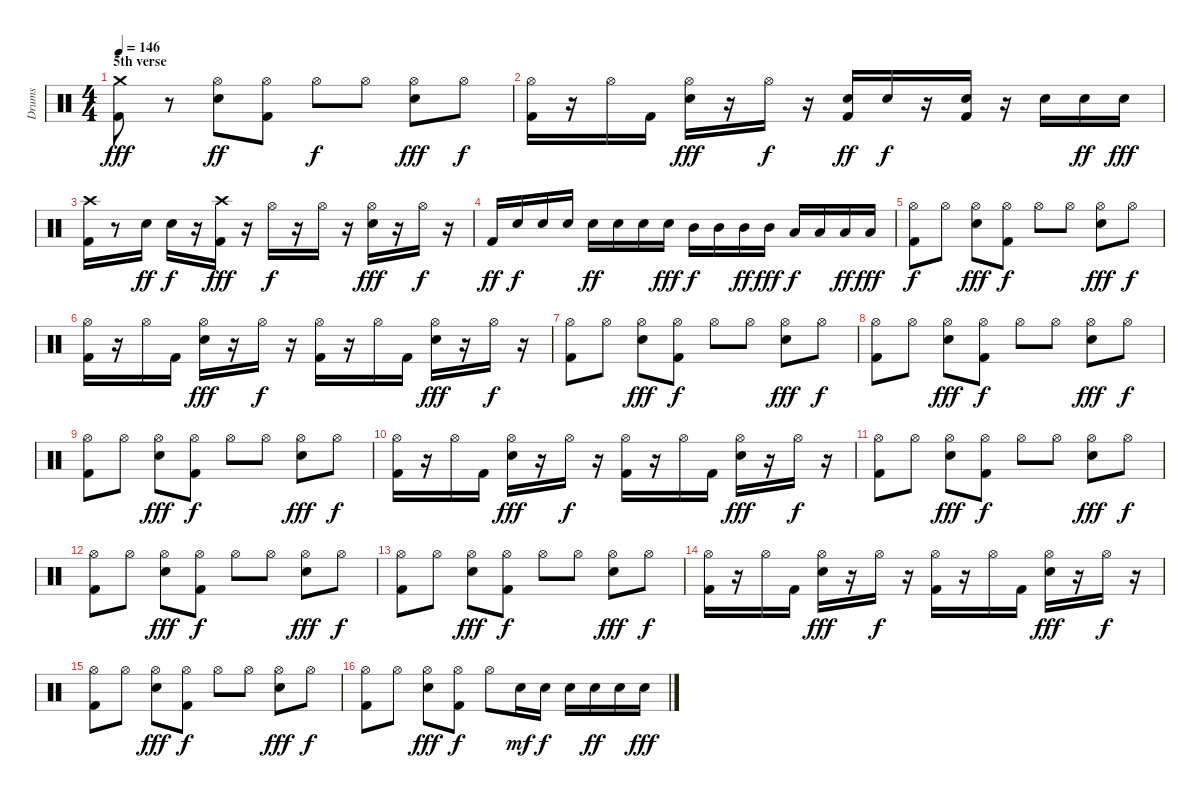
\track ("Drums" "Drums") {instrument percussion}
\staff {score}
\articulation defaults
\ts (4 4)
\section ("" "5th verse")
\tempo 146
\clef neutral
\ks c
("Kick (hit) 2" "Crash medium (hit)").8{dy fff} r.8 ("Hi-Hat (open)" "Snare (hit) 2").8{dy ff} ("Hi-Hat (open)" "Kick (hit) 2").8 "Hi-Hat (open)".8{dy f} "Hi-Hat (open)".8 ("Snare (hit) 2" "Hi-Hat (open)").8{dy fff} "Hi-Hat (open)".8{dy f} |
("Kick (hit) 2" "Hi-Hat (open)").16 r.16 "Hi-Hat (open)".16 "Kick (hit) 2".16 ("Snare (hit) 2" "Hi-Hat (open)").16{dy fff} r.16 "Hi-Hat (open)".16{dy f} r.16 ("Snare (hit) 2" "Kick (hit) 2").16{dy ff} "Snare (hit) 2".16{dy f} r.16 ("Snare (hit) 2" "Kick (hit) 2").16 r.16 "Snare (hit) 2".16 "Snare (hit) 2".16{dy ff} "Snare (hit) 2".16{dy fff} |
("Kick (hit) 2" "Crash high (hit)").16 r.8 "Snare (hit) 2".16{dy ff} "Snare (hit) 2".16{dy f} r.16 ("Kick (hit) 2" "Crash high (hit)").16{dy fff} r.16 "Hi-Hat (open)".16{dy f} r.16 "Hi-Hat (open)".16 r.16 ("Snare (hit) 2" "Hi-Hat (open)").16{dy fff} r.16 "Hi-Hat (open)".16{dy f} r.16 |
"Kick (hit) 2".16{dy ff} "Snare (hit) 2".16{dy f} "Snare (hit) 2".16 "Snare (hit) 2".16 "Snare (hit) 2".16{dy ff} "Snare (hit) 2".16 "Snare (hit) 2".16 "Snare (hit) 2".16{dy fff} "Mid Tom (hit)".16{dy f} "Mid Tom (hit)".16 "Mid Tom (hit)".16{dy ff} "Mid Tom (hit)".16{dy fff} "Low Tom (hit)".16{dy f} "Low Tom (hit)".16 "Low Tom (hit)".16{dy ff} "Low Tom (hit)".16{dy fff} |
("Kick (hit) 2" "Hi-Hat (open)").8{dy f} "Hi-Hat (open)".8 ("Snare (hit) 2" "Hi-Hat (open)").8{dy fff} ("Kick (hit) 2" "Hi-Hat (open)").8{dy f} "Hi-Hat (open)".8 "Hi-Hat (open)".8 ("Snare (hit) 2" "Hi-Hat (open)").8{dy fff} "Hi-Hat (open)".8{dy f} |
("Kick (hit) 2" "Hi-Hat (open)").16 r.16 "Hi-Hat (open)".16 "Kick (hit) 2".16 ("Snare (hit) 2" "Hi-Hat (open)").16{dy fff} r.16 "Hi-Hat (open)".16{dy f} r.16 ("Kick (hit) 2" "Hi-Hat (open)").16 r.16 "Hi-Hat (open)".16 "Kick (hit) 2".16 ("Snare (hit) 2" "Hi-Hat (open)").16{dy fff} r.16 "Hi-Hat (open)".16{dy f} r.16 |
("Kick (hit) 2" "Hi-Hat (open)").8 "Hi-Hat (open)".8 ("Snare (hit) 2" "Hi-Hat (open)").8{dy fff} ("Kick (hit) 2" "Hi-Hat (open)").8{dy f} "Hi-Hat (open)".8 "Hi-Hat (open)".8 ("Snare (hit) 2" "Hi-Hat (open)").8{dy fff} "Hi-Hat (open)".8{dy f} |
("Kick (hit) 2" "Hi-Hat (open)").8 "Hi-Hat (open)".8 ("Snare (hit) 2" "Hi-Hat (open)").8{dy fff} ("Kick (hit) 2" "Hi-Hat (open)").8{dy f} "Hi-Hat (open)".8 "Hi-Hat (open)".8 ("Snare (hit) 2" "Hi-Hat (open)").8{dy fff} "Hi-Hat (open)".8{dy f} |
("Kick (hit) 2" "Hi-Hat (open)").8 "Hi-Hat (open)".8 ("Snare (hit) 2" "Hi-Hat (open)").8{dy fff} ("Kick (hit) 2" "Hi-Hat (open)").8{dy f} "Hi-Hat (open)".8 "Hi-Hat (open)".8 ("Snare (hit) 2" "Hi-Hat (open)").8{dy fff} "Hi-Hat (open)".8{dy f} |
("Kick (hit) 2" "Hi-Hat (open)").16 r.16 "Hi-Hat (open)".16 "Kick (hit) 2".16 ("Snare (hit) 2" "Hi-Hat (open)").16{dy fff} r.16 "Hi-Hat (open)".16{dy f} r.16 ("Kick (hit) 2" "Hi-Hat (open)").16 r.16 "Hi-Hat (open)".16 "Kick (hit) 2".16 ("Snare (hit) 2" "Hi-Hat (open)").16{dy fff} r.16 "Hi-Hat (open)".16{dy f} r.16 |
("Kick (hit) 2" "Hi-Hat (open)").8 "Hi-Hat (open)".8 ("Snare (hit) 2" "Hi-Hat (open)").8{dy fff} ("Kick (hit) 2" "Hi-Hat (open)").8{dy f} "Hi-Hat (open)".8 "Hi-Hat (open)".8 ("Snare (hit) 2" "Hi-Hat (open)").8{dy fff} "Hi-Hat (open)".8{dy f} |
("Kick (hit) 2" "Hi-Hat (open)").8 "Hi-Hat (open)".8 ("Snare (hit) 2" "Hi-Hat (open)").8{dy fff} ("Kick (hit) 2" "Hi-Hat (open)").8{dy f} "Hi-Hat (open)".8 "Hi-Hat (open)".8 ("Snare (hit) 2" "Hi-Hat (open)").8{dy fff} "Hi-Hat (open)".8{dy f} |
("Kick (hit) 2" "Hi-Hat (open)").8 "Hi-Hat (open)".8 ("Snare (hit) 2" "Hi-Hat (open)").8{dy fff} ("Kick (hit) 2" "Hi-Hat (open)").8{dy f} "Hi-Hat (open)".8 "Hi-Hat (open)".8 ("Snare (hit) 2" "Hi-Hat (open)").8{dy fff} "Hi-Hat (open)".8{dy f} |
("Kick (hit) 2" "Hi-Hat (open)").16 r.16 "Hi-Hat (open)".16 "Kick (hit) 2".16 ("Snare (hit) 2" "Hi-Hat (open)").16{dy fff} r.16 "Hi-Hat (open)".16{dy f} r.16 ("Kick (hit) 2" "Hi-Hat (open)").16 r.16 "Hi-Hat (open)".16 "Kick (hit) 2".16 ("Snare (hit) 2" "Hi-Hat (open)").16{dy fff} r.16 "Hi-Hat (open)".16{dy f} r.16 |
("Kick (hit) 2" "Hi-Hat (open)").8 "Hi-Hat (open)".8 ("Snare (hit) 2" "Hi-Hat (open)").8{dy fff} ("Kick (hit) 2" "Hi-Hat (open)").8{dy f} "Hi-Hat (open)".8 "Hi-Hat (open)".8 ("Snare (hit) 2" "Hi-Hat (open)").8{dy fff} "Hi-Hat (open)".8{dy f} |
("Kick (hit) 2" "Hi-Hat (open)").8 "Hi-Hat (open)".8 ("Snare (hit) 2" "Hi-Hat (open)").8{dy fff} ("Kick (hit) 2" "Hi-Hat (open)").8{dy f} "Hi-Hat (open)".8 "Snare (hit) 2".16{dy mf} "Snare (hit) 2".16{dy f} "Snare (hit) 2".16 "Snare (hit) 2".16{dy ff} "Snare (hit) 2".16 "Snare (hit) 2".16{dy fff}
